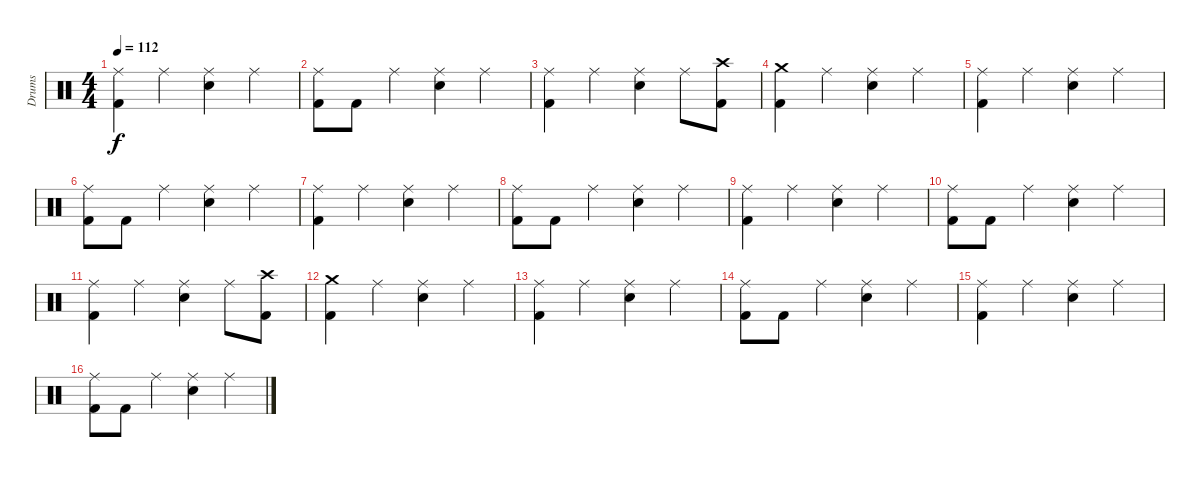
\track ("Drums" "Drums") {instrument percussion}
\staff {score}
\articulation defaults
\ts (4 4)
\tempo 112
\clef neutral
\ks c
("Ride (middle)" "Kick (hit) 2").4{dy f} "Ride (middle)".4 ("Ride (middle)" "Snare (hit) 2").4 "Ride (middle)".4 |
("Ride (middle)" "Kick (hit) 2").8 "Kick (hit) 2".8 "Ride (middle)".4 ("Ride (middle)" "Snare (hit) 2").4 "Ride (middle)".4 |
("Ride (middle)" "Kick (hit) 2").4{volume 9} "Ride (middle)".4 ("Ride (middle)" "Snare (hit) 2").4 "Ride (middle)".8 ("Crash high (hit)" "Kick (hit) 2").8 |
("Crash medium (hit)" "Kick (hit) 2").4 "Ride (middle)".4 ("Ride (middle)" "Snare (hit) 2").4 "Ride (middle)".4 |
("Ride (middle)" "Kick (hit) 2").4 "Ride (middle)".4 ("Ride (middle)" "Snare (hit) 2").4 "Ride (middle)".4 |
("Ride (middle)" "Kick (hit) 2").8 "Kick (hit) 2".8 "Ride (middle)".4 ("Ride (middle)" "Snare (hit) 2").4 "Ride (middle)".4 |
("Ride (middle)" "Kick (hit) 2").4 "Ride (middle)".4 ("Ride (middle)" "Snare (hit) 2").4 "Ride (middle)".4 |
("Ride (middle)" "Kick (hit) 2").8 "Kick (hit) 2".8 "Ride (middle)".4 ("Ride (middle)" "Snare (hit) 2").4 "Ride (middle)".4 |
("Ride (middle)" "Kick (hit) 2").4 "Ride (middle)".4 ("Ride (middle)" "Snare (hit) 2").4 "Ride (middle)".4 |
("Ride (middle)" "Kick (hit) 2").8 "Kick (hit) 2".8 "Ride (middle)".4 ("Ride (middle)" "Snare (hit) 2").4 "Ride (middle)".4 |
("Ride (middle)" "Kick (hit) 2").4 "Ride (middle)".4 ("Ride (middle)" "Snare (hit) 2").4 "Ride (middle)".8 ("Crash high (hit)" "Kick (hit) 2").8 |
("Crash medium (hit)" "Kick (hit) 2").4 "Ride (middle)".4 ("Ride (middle)" "Snare (hit) 2").4 "Ride (middle)".4 |
("Ride (middle)" "Kick (hit) 2").4 "Ride (middle)".4 ("Ride (middle)" "Snare (hit) 2").4 "Ride (middle)".4 |
("Ride (middle)" "Kick (hit) 2").8 "Kick (hit) 2".8 "Ride (middle)".4 ("Ride (middle)" "Snare (hit) 2").4 "Ride (middle)".4 |
("Ride (middle)" "Kick (hit) 2").4 "Ride (middle)".4 ("Ride (middle)" "Snare (hit) 2").4 "Ride (middle)".4 |
("Ride (middle)" "Kick (hit) 2").8 "Kick (hit) 2".8 "Ride (middle)".4 ("Ride (middle)" "Snare (hit) 2").4 "Ride (middle)".4
